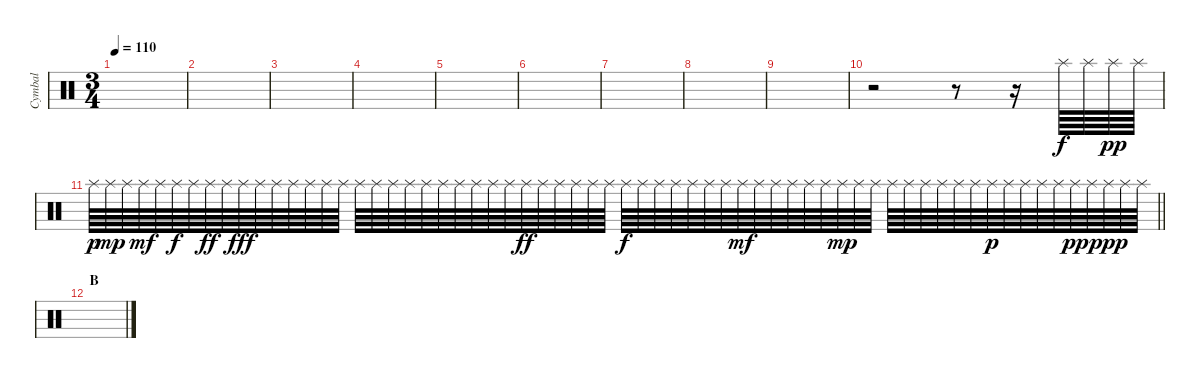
\track ("Cymbal" "Cymbal") {mute instrument percussion}
\staff {score}
\articulation defaults
\ts (3 4)
\tempo 110
\clef neutral
\ks c
|
|
|
|
|
|
|
|
|
r.2 r.8 r.16 "Splash (hit)".64 "Splash (hit)".64 "Splash (hit)".64{dy pp} "Splash (hit)".64 |
\barLineRight lightlight "Splash (hit)".64{dy p} "Splash (hit)".64{dy mp} "Splash (hit)".64 "Splash (hit)".64{dy mf} "Splash (hit)".64 "Splash (hit)".64{dy f} "Splash (hit)".64 "Splash (hit)".64{dy ff} "Splash (hit)".64 "Splash (hit)".64{dy fff} "Splash (hit)".64 "Splash (hit)".64 "Splash (hit)".64 "Splash (hit)".64 "Splash (hit)".64 "Splash (hit)".64 "Splash (hit)".64 "Splash (hit)".64 "Splash (hit)".64 "Splash (hit)".64 "Splash (hit)".64 "Splash (hit)".64 "Splash (hit)".64 "Splash (hit)".64 "Splash (hit)".64 "Splash (hit)".64 "Splash (hit)".64{dy ff} "Splash (hit)".64 "Splash (hit)".64 "Splash (hit)".64 "Splash (hit)".64 "Splash (hit)".64 "Splash (hit)".64{dy f} "Splash (hit)".64 "Splash (hit)".64 "Splash (hit)".64 "Splash (hit)".64 "Splash (hit)".64 "Splash (hit)".64 "Splash (hit)".64{dy mf} "Splash (hit)".64 "Splash (hit)".64 "Splash (hit)".64 "Splash (hit)".64 "Splash (hit)".64 "Splash (hit)".64{dy mp} "Splash (hit)".64 "Splash (hit)".64 "Splash (hit)".64 "Splash (hit)".64 "Splash (hit)".64 "Splash (hit)".64 "Splash (hit)".64 "Splash (hit)".64 "Splash (hit)".64{dy p} "Splash (hit)".64 "Splash (hit)".64 "Splash (hit)".64 "Splash (hit)".64 "Splash (hit)".64{dy pp} "Splash (hit)".64 "Splash (hit)".64{dy ppp} "Splash (hit)".64 "Splash (hit)".64
|
\section ("" "B")
